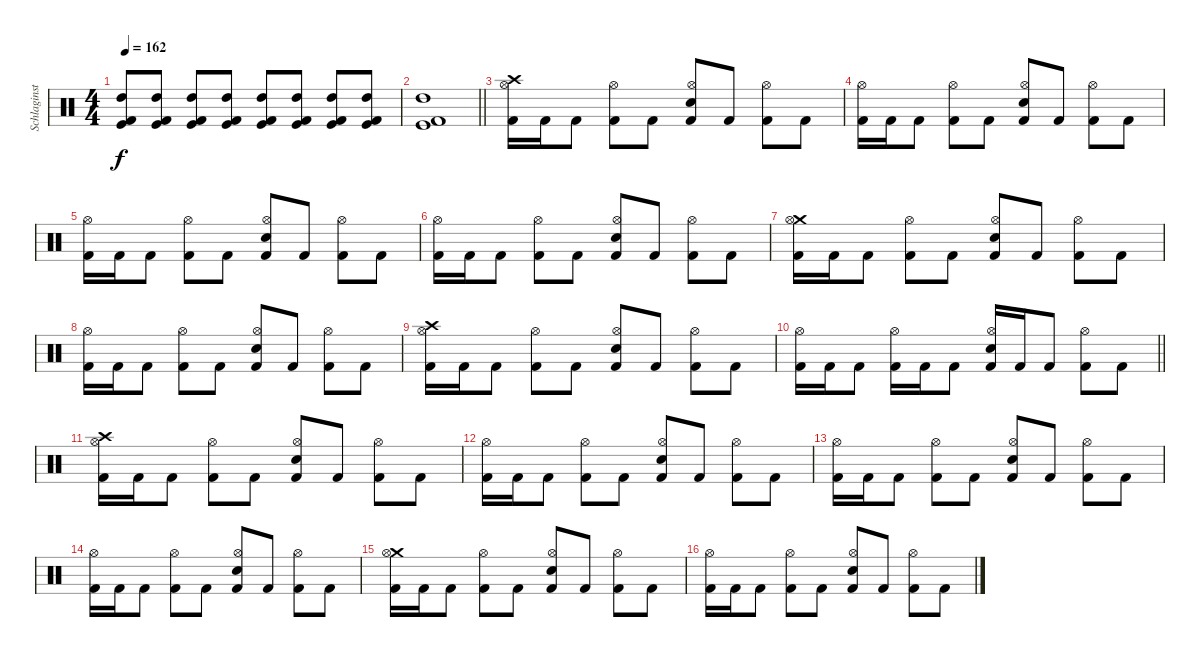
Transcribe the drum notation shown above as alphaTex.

\track ("Schlaginstrumente - Auswahl" "Schlaginst") {instrument percussion}
\staff {score}
\articulation defaults
\ts (4 4)
\tempo 162
\clef neutral
\ks c
("Kick (hit)" "High Tom (hit)" "Kick (hit) 2").8{dy f} ("Kick (hit)" "High Tom (hit)" "Kick (hit) 2").8 ("Kick (hit)" "High Tom (hit)" "Kick (hit) 2").8 ("Kick (hit)" "High Tom (hit)" "Kick (hit) 2").8 ("Kick (hit)" "High Tom (hit)" "Kick (hit) 2").8 ("Kick (hit)" "High Tom (hit)" "Kick (hit) 2").8 ("Kick (hit)" "High Tom (hit)" "Kick (hit) 2").8 ("Kick (hit)" "High Tom (hit)" "Kick (hit) 2").8 |
\barLineRight lightlight
("Kick (hit)" "High Tom (hit)" "Kick (hit) 2").1 |
("Crash high (hit)" "Hi-Hat (open)" "Kick (hit) 2").16 "Kick (hit) 2".16 "Kick (hit) 2".8 ("Hi-Hat (open)" "Kick (hit) 2").8 "Kick (hit) 2".8 ("Hi-Hat (open)" "Electric Snare (hit)" "Kick (hit) 2").8 "Kick (hit) 2".8 ("Hi-Hat (open)" "Kick (hit) 2").8 "Kick (hit) 2".8 |
("Hi-Hat (open)" "Kick (hit) 2").16 "Kick (hit) 2".16 "Kick (hit) 2".8 ("Hi-Hat (open)" "Kick (hit) 2").8 "Kick (hit) 2".8 ("Hi-Hat (open)" "Electric Snare (hit)" "Kick (hit) 2").8 "Kick (hit) 2".8 ("Hi-Hat (open)" "Kick (hit) 2").8 "Kick (hit) 2".8 |
("Hi-Hat (open)" "Kick (hit) 2").16 "Kick (hit) 2".16 "Kick (hit) 2".8 ("Hi-Hat (open)" "Kick (hit) 2").8 "Kick (hit) 2".8 ("Hi-Hat (open)" "Electric Snare (hit)" "Kick (hit) 2").8 "Kick (hit) 2".8 ("Hi-Hat (open)" "Kick (hit) 2").8 "Kick (hit) 2".8 |
("Hi-Hat (open)" "Kick (hit) 2").16 "Kick (hit) 2".16 "Kick (hit) 2".8 ("Hi-Hat (open)" "Kick (hit) 2").8 "Kick (hit) 2".8 ("Hi-Hat (open)" "Electric Snare (hit)" "Kick (hit) 2").8 "Kick (hit) 2".8 ("Hi-Hat (open)" "Kick (hit) 2").8 "Kick (hit) 2".8 |
("Crash medium (hit)" "Hi-Hat (open)" "Kick (hit) 2").16 "Kick (hit) 2".16 "Kick (hit) 2".8 ("Hi-Hat (open)" "Kick (hit) 2").8 "Kick (hit) 2".8 ("Hi-Hat (open)" "Electric Snare (hit)" "Kick (hit) 2").8 "Kick (hit) 2".8 ("Hi-Hat (open)" "Kick (hit) 2").8 "Kick (hit) 2".8 |
("Hi-Hat (open)" "Kick (hit) 2").16 "Kick (hit) 2".16 "Kick (hit) 2".8 ("Hi-Hat (open)" "Kick (hit) 2").8 "Kick (hit) 2".8 ("Hi-Hat (open)" "Electric Snare (hit)" "Kick (hit) 2").8 "Kick (hit) 2".8 ("Hi-Hat (open)" "Kick (hit) 2").8 "Kick (hit) 2".8 |
("Crash high (hit)" "Hi-Hat (open)" "Kick (hit) 2").16 "Kick (hit) 2".16 "Kick (hit) 2".8 ("Hi-Hat (open)" "Kick (hit) 2").8 "Kick (hit) 2".8 ("Hi-Hat (open)" "Electric Snare (hit)" "Kick (hit) 2").8 "Kick (hit) 2".8 ("Hi-Hat (open)" "Kick (hit) 2").8 "Kick (hit) 2".8 |
\barLineRight lightlight
("Hi-Hat (open)" "Kick (hit) 2").16 "Kick (hit) 2".16 "Kick (hit) 2".8 ("Hi-Hat (open)" "Kick (hit) 2").16 "Kick (hit) 2".16 "Kick (hit) 2".8 ("Hi-Hat (open)" "Electric Snare (hit)" "Kick (hit) 2").16 "Kick (hit) 2".16 "Kick (hit) 2".8 ("Hi-Hat (open)" "Kick (hit) 2").8 "Kick (hit) 2".8 |
("Crash high (hit)" "Hi-Hat (open)" "Kick (hit) 2").16 "Kick (hit) 2".16 "Kick (hit) 2".8 ("Hi-Hat (open)" "Kick (hit) 2").8 "Kick (hit) 2".8 ("Hi-Hat (open)" "Electric Snare (hit)" "Kick (hit) 2").8 "Kick (hit) 2".8 ("Hi-Hat (open)" "Kick (hit) 2").8 "Kick (hit) 2".8 |
("Hi-Hat (open)" "Kick (hit) 2").16 "Kick (hit) 2".16 "Kick (hit) 2".8 ("Hi-Hat (open)" "Kick (hit) 2").8 "Kick (hit) 2".8 ("Hi-Hat (open)" "Electric Snare (hit)" "Kick (hit) 2").8 "Kick (hit) 2".8 ("Hi-Hat (open)" "Kick (hit) 2").8 "Kick (hit) 2".8 |
("Hi-Hat (open)" "Kick (hit) 2").16 "Kick (hit) 2".16 "Kick (hit) 2".8 ("Hi-Hat (open)" "Kick (hit) 2").8 "Kick (hit) 2".8 ("Hi-Hat (open)" "Electric Snare (hit)" "Kick (hit) 2").8 "Kick (hit) 2".8 ("Hi-Hat (open)" "Kick (hit) 2").8 "Kick (hit) 2".8 |
("Hi-Hat (open)" "Kick (hit) 2").16 "Kick (hit) 2".16 "Kick (hit) 2".8 ("Hi-Hat (open)" "Kick (hit) 2").8 "Kick (hit) 2".8 ("Hi-Hat (open)" "Electric Snare (hit)" "Kick (hit) 2").8 "Kick (hit) 2".8 ("Hi-Hat (open)" "Kick (hit) 2").8 "Kick (hit) 2".8 |
("Crash medium (hit)" "Hi-Hat (open)" "Kick (hit) 2").16 "Kick (hit) 2".16 "Kick (hit) 2".8 ("Hi-Hat (open)" "Kick (hit) 2").8 "Kick (hit) 2".8 ("Hi-Hat (open)" "Electric Snare (hit)" "Kick (hit) 2").8 "Kick (hit) 2".8 ("Hi-Hat (open)" "Kick (hit) 2").8 "Kick (hit) 2".8 |
("Hi-Hat (open)" "Kick (hit) 2").16 "Kick (hit) 2".16 "Kick (hit) 2".8 ("Hi-Hat (open)" "Kick (hit) 2").8 "Kick (hit) 2".8 ("Hi-Hat (open)" "Electric Snare (hit)" "Kick (hit) 2").8 "Kick (hit) 2".8 ("Hi-Hat (open)" "Kick (hit) 2").8 "Kick (hit) 2".8
